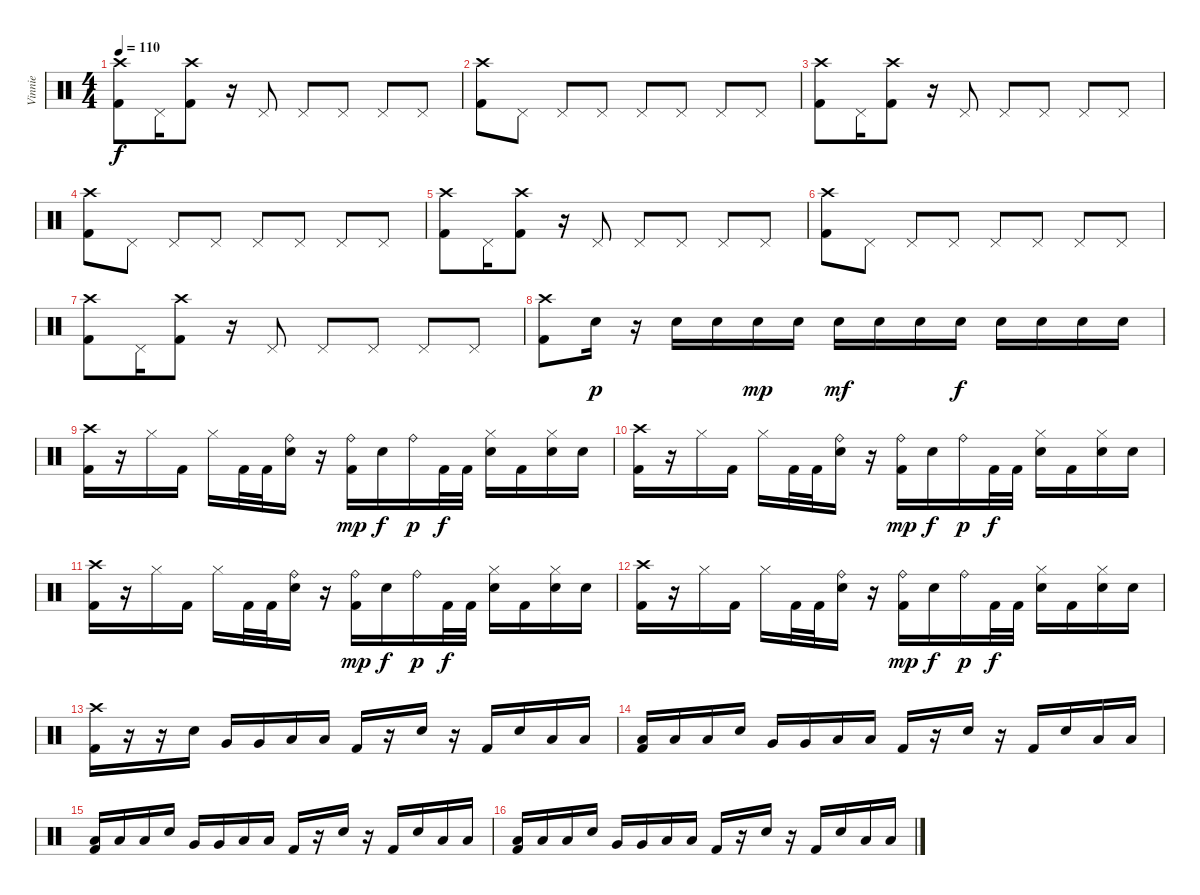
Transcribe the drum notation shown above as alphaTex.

\track ("Vinnie" "Vinnie") {instrument percussion}
\staff {score}
\articulation defaults
\ts (4 4)
\tempo 110
\clef neutral
\ks c
("Crash high (hit)" "Kick (hit) 2").8{dy f} "Pedal Hi-Hat (hit)".16 ("Crash high (hit)" "Kick (hit) 2").8 r.16 "Pedal Hi-Hat (hit)".8 "Pedal Hi-Hat (hit)".8 "Pedal Hi-Hat (hit)".8 "Pedal Hi-Hat (hit)".8 "Pedal Hi-Hat (hit)".8 |
("Crash high (hit)" "Kick (hit) 2").8 "Pedal Hi-Hat (hit)".8 "Pedal Hi-Hat (hit)".8 "Pedal Hi-Hat (hit)".8 "Pedal Hi-Hat (hit)".8 "Pedal Hi-Hat (hit)".8 "Pedal Hi-Hat (hit)".8 "Pedal Hi-Hat (hit)".8 |
("Crash high (hit)" "Kick (hit) 2").8 "Pedal Hi-Hat (hit)".16 ("Crash high (hit)" "Kick (hit) 2").8 r.16 "Pedal Hi-Hat (hit)".8 "Pedal Hi-Hat (hit)".8 "Pedal Hi-Hat (hit)".8 "Pedal Hi-Hat (hit)".8 "Pedal Hi-Hat (hit)".8 |
("Crash high (hit)" "Kick (hit) 2").8 "Pedal Hi-Hat (hit)".8 "Pedal Hi-Hat (hit)".8 "Pedal Hi-Hat (hit)".8 "Pedal Hi-Hat (hit)".8 "Pedal Hi-Hat (hit)".8 "Pedal Hi-Hat (hit)".8 "Pedal Hi-Hat (hit)".8 |
("Crash high (hit)" "Kick (hit) 2").8 "Pedal Hi-Hat (hit)".16 ("Crash high (hit)" "Kick (hit) 2").8 r.16 "Pedal Hi-Hat (hit)".8 "Pedal Hi-Hat (hit)".8 "Pedal Hi-Hat (hit)".8 "Pedal Hi-Hat (hit)".8 "Pedal Hi-Hat (hit)".8 |
("Crash high (hit)" "Kick (hit) 2").8 "Pedal Hi-Hat (hit)".8 "Pedal Hi-Hat (hit)".8 "Pedal Hi-Hat (hit)".8 "Pedal Hi-Hat (hit)".8 "Pedal Hi-Hat (hit)".8 "Pedal Hi-Hat (hit)".8 "Pedal Hi-Hat (hit)".8 |
("Crash high (hit)" "Kick (hit) 2").8 "Pedal Hi-Hat (hit)".16 ("Crash high (hit)" "Kick (hit) 2").8 r.16 "Pedal Hi-Hat (hit)".8 "Pedal Hi-Hat (hit)".8 "Pedal Hi-Hat (hit)".8 "Pedal Hi-Hat (hit)".8 "Pedal Hi-Hat (hit)".8 |
("Crash high (hit)" "Kick (hit) 2").8 "Electric Snare (hit)".16{dy p} r.16 "Electric Snare (hit)".16 "Electric Snare (hit)".16 "Electric Snare (hit)".16{dy mp} "Electric Snare (hit)".16 "Electric Snare (hit)".16{dy mf} "Electric Snare (hit)".16 "Electric Snare (hit)".16 "Electric Snare (hit)".16{dy f} "Electric Snare (hit)".16 "Electric Snare (hit)".16 "Electric Snare (hit)".16 "Electric Snare (hit)".16 |
("Crash high (hit)" "Kick (hit) 2").16 r.16 "Hi-Hat (closed)".16 "Kick (hit) 2".16 "Hi-Hat (closed)".16 "Kick (hit) 2".32 "Kick (hit) 2".32 ("Ride (bell)" "Electric Snare (hit)").16 r.16 ("Ride (bell)" "Kick (hit) 2").16{dy mp} "Electric Snare (hit)".16{dy f} "Ride (bell)".16{dy p} "Kick (hit) 2".32{dy f} "Kick (hit) 2".32 ("Hi-Hat (closed)" "Electric Snare (hit)").16 "Kick (hit) 2".16 ("Hi-Hat (closed)" "Electric Snare (hit)").16 "Electric Snare (hit)".16 |
("Crash high (hit)" "Kick (hit) 2").16 r.16 "Hi-Hat (closed)".16 "Kick (hit) 2".16 "Hi-Hat (closed)".16 "Kick (hit) 2".32 "Kick (hit) 2".32 ("Ride (bell)" "Electric Snare (hit)").16 r.16 ("Ride (bell)" "Kick (hit) 2").16{dy mp} "Electric Snare (hit)".16{dy f} "Ride (bell)".16{dy p} "Kick (hit) 2".32{dy f} "Kick (hit) 2".32 ("Hi-Hat (closed)" "Electric Snare (hit)").16 "Kick (hit) 2".16 ("Hi-Hat (closed)" "Electric Snare (hit)").16 "Electric Snare (hit)".16 |
("Crash high (hit)" "Kick (hit) 2").16 r.16 "Hi-Hat (closed)".16 "Kick (hit) 2".16 "Hi-Hat (closed)".16 "Kick (hit) 2".32 "Kick (hit) 2".32 ("Ride (bell)" "Electric Snare (hit)").16 r.16 ("Ride (bell)" "Kick (hit) 2").16{dy mp} "Electric Snare (hit)".16{dy f} "Ride (bell)".16{dy p} "Kick (hit) 2".32{dy f} "Kick (hit) 2".32 ("Hi-Hat (closed)" "Electric Snare (hit)").16 "Kick (hit) 2".16 ("Hi-Hat (closed)" "Electric Snare (hit)").16 "Electric Snare (hit)".16 |
("Crash high (hit)" "Kick (hit) 2").16 r.16 "Hi-Hat (closed)".16 "Kick (hit) 2".16 "Hi-Hat (closed)".16 "Kick (hit) 2".32 "Kick (hit) 2".32 ("Ride (bell)" "Electric Snare (hit)").16 r.16 ("Ride (bell)" "Kick (hit) 2").16{dy mp} "Electric Snare (hit)".16{dy f} "Ride (bell)".16{dy p} "Kick (hit) 2".32{dy f} "Kick (hit) 2".32 ("Hi-Hat (closed)" "Electric Snare (hit)").16 "Kick (hit) 2".16 ("Hi-Hat (closed)" "Electric Snare (hit)").16 "Electric Snare (hit)".16 |
("Crash high (hit)" "Kick (hit) 2").16 r.16 r.16 "Electric Snare (hit)".16 "Very Low Tom (hit)".16 "Very Low Tom (hit)".16 "Low Floor Tom (hit)".16 "Low Floor Tom (hit)".16 "Kick (hit) 2".16 r.16 "Electric Snare (hit)".16 r.16 "Kick (hit) 2".16 "Electric Snare (hit)".16 "Low Floor Tom (hit)".16 "Low Floor Tom (hit)".16 |
("Low Floor Tom (hit)" "Kick (hit) 2").16 "Low Floor Tom (hit)".16 "Low Floor Tom (hit)".16 "Electric Snare (hit)".16 "Very Low Tom (hit)".16 "Very Low Tom (hit)".16 "Low Floor Tom (hit)".16 "Low Floor Tom (hit)".16 "Kick (hit) 2".16 r.16 "Electric Snare (hit)".16 r.16 "Kick (hit) 2".16 "Electric Snare (hit)".16 "Low Floor Tom (hit)".16 "Low Floor Tom (hit)".16 |
("Low Floor Tom (hit)" "Kick (hit) 2").16 "Low Floor Tom (hit)".16 "Low Floor Tom (hit)".16 "Electric Snare (hit)".16 "Very Low Tom (hit)".16 "Very Low Tom (hit)".16 "Low Floor Tom (hit)".16 "Low Floor Tom (hit)".16 "Kick (hit) 2".16 r.16 "Electric Snare (hit)".16 r.16 "Kick (hit) 2".16 "Electric Snare (hit)".16 "Low Floor Tom (hit)".16 "Low Floor Tom (hit)".16 |
("Low Floor Tom (hit)" "Kick (hit) 2").16 "Low Floor Tom (hit)".16 "Low Floor Tom (hit)".16 "Electric Snare (hit)".16 "Very Low Tom (hit)".16 "Very Low Tom (hit)".16 "Low Floor Tom (hit)".16 "Low Floor Tom (hit)".16 "Kick (hit) 2".16 r.16 "Electric Snare (hit)".16 r.16 "Kick (hit) 2".16 "Electric Snare (hit)".16 "Low Floor Tom (hit)".16 "Low Floor Tom (hit)".16
